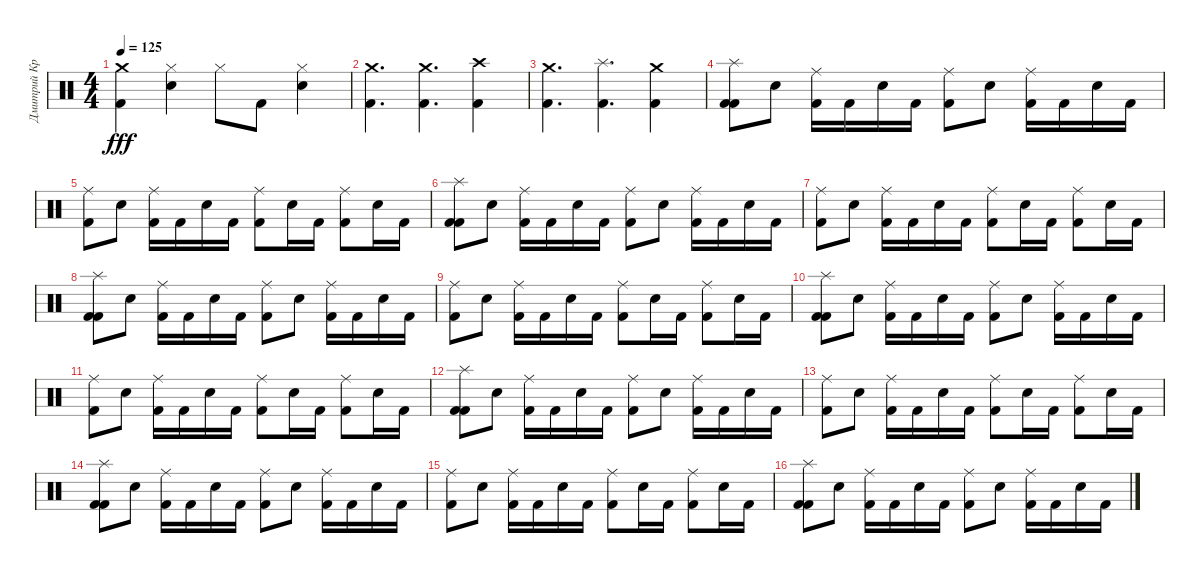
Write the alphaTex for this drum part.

\track ("Дмитрий Кривенков" "Дмитрий Кр") {instrument percussion}
\staff {score}
\articulation defaults
\ts (4 4)
\tempo 125
\clef neutral
\ks c
("Kick (hit) 2" "Crash medium (hit)").4{dy fff} ("Electric Snare (hit)" "Hi-Hat (closed)").4 "Hi-Hat (closed)".8 "Kick (hit) 2".8 ("Electric Snare (hit)" "Hi-Hat (closed)").4 |
("Kick (hit) 2" "Crash medium (hit)").4{d} ("Kick (hit) 2" "Crash medium (hit)").4{d} ("Kick (hit) 2" "Crash high (hit)").4 |
("Kick (hit) 2" "Crash medium (hit)").4{d} ("Kick (hit) 2" "Splash (hit)").4{d} ("Kick (hit) 2" "Crash medium (hit)").4 |
("Splash (hit)" "Kick (hit) 2" "Kick (hit) 2").8 "Electric Snare (hit)".8 ("Kick (hit) 2" "Ride (middle)").16 "Kick (hit) 2".16 "Electric Snare (hit)".16 "Kick (hit) 2".16 ("Kick (hit) 2" "Ride (middle)").8 "Electric Snare (hit)".8 ("Ride (middle)" "Kick (hit) 2").16 "Kick (hit) 2".16 "Electric Snare (hit)".16 "Kick (hit) 2".16 |
("Ride (middle)" "Kick (hit) 2").8 "Electric Snare (hit)".8 ("Ride (middle)" "Kick (hit) 2").16 "Kick (hit) 2".16 "Electric Snare (hit)".16 "Kick (hit) 2".16 ("Kick (hit) 2" "Ride (middle)").8 "Electric Snare (hit)".16 "Kick (hit) 2".16 ("Ride (middle)" "Kick (hit) 2").8 "Electric Snare (hit)".16 "Kick (hit) 2".16 |
("Kick (hit) 2" "Kick (hit) 2" "Splash (hit)").8 "Electric Snare (hit)".8 ("Ride (middle)" "Kick (hit) 2").16 "Kick (hit) 2".16 "Electric Snare (hit)".16 "Kick (hit) 2".16 ("Ride (middle)" "Kick (hit) 2").8 "Electric Snare (hit)".8 ("Ride (middle)" "Kick (hit) 2").16 "Kick (hit) 2".16 "Electric Snare (hit)".16 "Kick (hit) 2".16 |
("Ride (middle)" "Kick (hit) 2").8 "Electric Snare (hit)".8 ("Ride (middle)" "Kick (hit) 2").16 "Kick (hit) 2".16 "Electric Snare (hit)".16 "Kick (hit) 2".16 ("Ride (middle)" "Kick (hit) 2").8 "Electric Snare (hit)".16 "Kick (hit) 2".16 ("Ride (middle)" "Kick (hit) 2").8 "Electric Snare (hit)".16 "Kick (hit) 2".16 |
("Splash (hit)" "Kick (hit) 2" "Kick (hit) 2").8 "Electric Snare (hit)".8 ("Kick (hit) 2" "Ride (middle)").16 "Kick (hit) 2".16 "Electric Snare (hit)".16 "Kick (hit) 2".16 ("Kick (hit) 2" "Ride (middle)").8 "Electric Snare (hit)".8 ("Ride (middle)" "Kick (hit) 2").16 "Kick (hit) 2".16 "Electric Snare (hit)".16 "Kick (hit) 2".16 |
("Ride (middle)" "Kick (hit) 2").8 "Electric Snare (hit)".8 ("Ride (middle)" "Kick (hit) 2").16 "Kick (hit) 2".16 "Electric Snare (hit)".16 "Kick (hit) 2".16 ("Kick (hit) 2" "Ride (middle)").8 "Electric Snare (hit)".16 "Kick (hit) 2".16 ("Ride (middle)" "Kick (hit) 2").8 "Electric Snare (hit)".16 "Kick (hit) 2".16 |
("Kick (hit) 2" "Kick (hit) 2" "Splash (hit)").8 "Electric Snare (hit)".8 ("Ride (middle)" "Kick (hit) 2").16 "Kick (hit) 2".16 "Electric Snare (hit)".16 "Kick (hit) 2".16 ("Ride (middle)" "Kick (hit) 2").8 "Electric Snare (hit)".8 ("Ride (middle)" "Kick (hit) 2").16 "Kick (hit) 2".16 "Electric Snare (hit)".16 "Kick (hit) 2".16 |
("Ride (middle)" "Kick (hit) 2").8 "Electric Snare (hit)".8 ("Ride (middle)" "Kick (hit) 2").16 "Kick (hit) 2".16 "Electric Snare (hit)".16 "Kick (hit) 2".16 ("Ride (middle)" "Kick (hit) 2").8 "Electric Snare (hit)".16 "Kick (hit) 2".16 ("Ride (middle)" "Kick (hit) 2").8 "Electric Snare (hit)".16 "Kick (hit) 2".16 |
("Splash (hit)" "Kick (hit) 2" "Kick (hit) 2").8 "Electric Snare (hit)".8 ("Kick (hit) 2" "Ride (middle)").16 "Kick (hit) 2".16 "Electric Snare (hit)".16 "Kick (hit) 2".16 ("Kick (hit) 2" "Ride (middle)").8 "Electric Snare (hit)".8 ("Ride (middle)" "Kick (hit) 2").16 "Kick (hit) 2".16 "Electric Snare (hit)".16 "Kick (hit) 2".16 |
("Ride (middle)" "Kick (hit) 2").8 "Electric Snare (hit)".8 ("Ride (middle)" "Kick (hit) 2").16 "Kick (hit) 2".16 "Electric Snare (hit)".16 "Kick (hit) 2".16 ("Kick (hit) 2" "Ride (middle)").8 "Electric Snare (hit)".16 "Kick (hit) 2".16 ("Ride (middle)" "Kick (hit) 2").8 "Electric Snare (hit)".16 "Kick (hit) 2".16 |
("Kick (hit) 2" "Kick (hit) 2" "Splash (hit)").8 "Electric Snare (hit)".8 ("Ride (middle)" "Kick (hit) 2").16 "Kick (hit) 2".16 "Electric Snare (hit)".16 "Kick (hit) 2".16 ("Ride (middle)" "Kick (hit) 2").8 "Electric Snare (hit)".8 ("Ride (middle)" "Kick (hit) 2").16 "Kick (hit) 2".16 "Electric Snare (hit)".16 "Kick (hit) 2".16 |
("Ride (middle)" "Kick (hit) 2").8 "Electric Snare (hit)".8 ("Ride (middle)" "Kick (hit) 2").16 "Kick (hit) 2".16 "Electric Snare (hit)".16 "Kick (hit) 2".16 ("Ride (middle)" "Kick (hit) 2").8 "Electric Snare (hit)".16 "Kick (hit) 2".16 ("Ride (middle)" "Kick (hit) 2").8 "Electric Snare (hit)".16 "Kick (hit) 2".16 |
("Kick (hit) 2" "Kick (hit) 2" "Splash (hit)").8 "Electric Snare (hit)".8 ("Ride (middle)" "Kick (hit) 2").16 "Kick (hit) 2".16 "Electric Snare (hit)".16 "Kick (hit) 2".16 ("Ride (middle)" "Kick (hit) 2").8 "Electric Snare (hit)".8 ("Ride (middle)" "Kick (hit) 2").16 "Kick (hit) 2".16 "Electric Snare (hit)".16 "Kick (hit) 2".16
